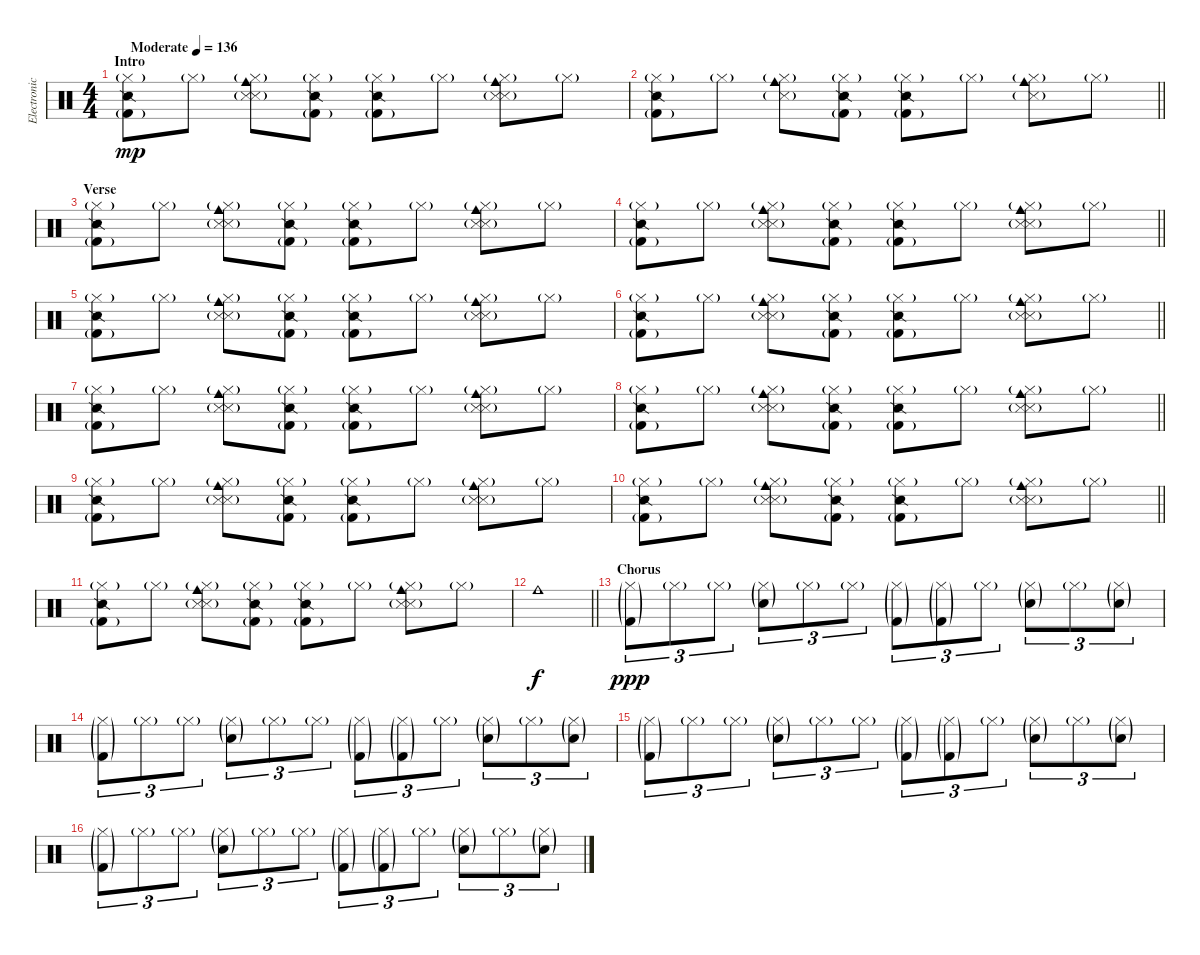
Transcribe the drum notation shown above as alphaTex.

\track ("Electronic Drums" "Electronic") {instrument percussion}
\staff {score}
\articulation defaults
\ts (4 4)
\section ("" "Intro")
\tempo (136 "Moderate")
\clef neutral
\ks c
("Hi-Hat (closed)"{g} "Kick (hit) 2"{g} "Snare (side stick) 2").8{dy mp} "Hi-Hat (closed)"{g}.8 ("Hi-Hat (closed)"{g} "Snare (side stick) 3"{g} "Metronome (hit)" "Cowbell medium (hit)").8 ("Hi-Hat (closed)"{g} "Kick (hit) 2"{g} "Snare (side stick) 2").8 ("Hi-Hat (closed)"{g} "Kick (hit) 2"{g} "Snare (side stick) 2").8 "Hi-Hat (closed)"{g}.8 ("Hi-Hat (closed)"{g} "Snare (side stick) 3"{g} "Metronome (hit)" "Cowbell medium (hit)").8 "Hi-Hat (closed)"{g}.8 |
\barLineRight lightlight
("Hi-Hat (closed)"{g} "Kick (hit) 2"{g} "Snare (side stick) 2").8 "Hi-Hat (closed)"{g}.8 ("Hi-Hat (closed)"{g} "Snare (side stick) 3"{g} "Cowbell medium (hit)").8 ("Hi-Hat (closed)"{g} "Kick (hit) 2"{g} "Snare (side stick) 2").8 ("Hi-Hat (closed)"{g} "Kick (hit) 2"{g} "Snare (side stick) 2").8 "Hi-Hat (closed)"{g}.8 ("Hi-Hat (closed)"{g} "Snare (side stick) 3"{g} "Cowbell medium (hit)").8 "Hi-Hat (closed)"{g}.8 |
\section ("" "Verse")
("Hi-Hat (closed)"{g} "Kick (hit) 2"{g} "Snare (side stick) 2").8 "Hi-Hat (closed)"{g}.8 ("Hi-Hat (closed)"{g} "Snare (side stick) 3"{g} "Metronome (hit)" "Cowbell medium (hit)").8 ("Hi-Hat (closed)"{g} "Kick (hit) 2"{g} "Snare (side stick) 2").8 ("Hi-Hat (closed)"{g} "Kick (hit) 2"{g} "Snare (side stick) 2").8 "Hi-Hat (closed)"{g}.8 ("Hi-Hat (closed)"{g} "Snare (side stick) 3"{g} "Metronome (hit)" "Cowbell medium (hit)").8 "Hi-Hat (closed)"{g}.8 |
\barLineRight lightlight
("Hi-Hat (closed)"{g} "Kick (hit) 2"{g} "Snare (side stick) 2").8 "Hi-Hat (closed)"{g}.8 ("Hi-Hat (closed)"{g} "Snare (side stick) 3"{g} "Metronome (hit)" "Cowbell medium (hit)").8 ("Hi-Hat (closed)"{g} "Kick (hit) 2"{g} "Snare (side stick) 2").8 ("Hi-Hat (closed)"{g} "Kick (hit) 2"{g} "Snare (side stick) 2").8 "Hi-Hat (closed)"{g}.8 ("Hi-Hat (closed)"{g} "Snare (side stick) 3"{g} "Metronome (hit)" "Cowbell medium (hit)").8 "Hi-Hat (closed)"{g}.8 |
("Hi-Hat (closed)"{g} "Kick (hit) 2"{g} "Snare (side stick) 2").8 "Hi-Hat (closed)"{g}.8 ("Hi-Hat (closed)"{g} "Snare (side stick) 3"{g} "Metronome (hit)" "Cowbell medium (hit)").8 ("Hi-Hat (closed)"{g} "Kick (hit) 2"{g} "Snare (side stick) 2").8 ("Hi-Hat (closed)"{g} "Kick (hit) 2"{g} "Snare (side stick) 2").8 "Hi-Hat (closed)"{g}.8 ("Hi-Hat (closed)"{g} "Snare (side stick) 3"{g} "Metronome (hit)" "Cowbell medium (hit)").8 "Hi-Hat (closed)"{g}.8 |
\barLineRight lightlight
("Hi-Hat (closed)"{g} "Kick (hit) 2"{g} "Snare (side stick) 2").8 "Hi-Hat (closed)"{g}.8 ("Hi-Hat (closed)"{g} "Snare (side stick) 3"{g} "Metronome (hit)" "Cowbell medium (hit)").8 ("Hi-Hat (closed)"{g} "Kick (hit) 2"{g} "Snare (side stick) 2").8 ("Hi-Hat (closed)"{g} "Kick (hit) 2"{g} "Snare (side stick) 2").8 "Hi-Hat (closed)"{g}.8 ("Hi-Hat (closed)"{g} "Snare (side stick) 3"{g} "Metronome (hit)" "Cowbell medium (hit)").8 "Hi-Hat (closed)"{g}.8 |
("Hi-Hat (closed)"{g} "Kick (hit) 2"{g} "Snare (side stick) 2").8 "Hi-Hat (closed)"{g}.8 ("Hi-Hat (closed)"{g} "Snare (side stick) 3"{g} "Metronome (hit)" "Cowbell medium (hit)").8 ("Hi-Hat (closed)"{g} "Kick (hit) 2"{g} "Snare (side stick) 2").8 ("Hi-Hat (closed)"{g} "Kick (hit) 2"{g} "Snare (side stick) 2").8 "Hi-Hat (closed)"{g}.8 ("Hi-Hat (closed)"{g} "Snare (side stick) 3"{g} "Metronome (hit)" "Cowbell medium (hit)").8 "Hi-Hat (closed)"{g}.8 |
\barLineRight lightlight
("Hi-Hat (closed)"{g} "Kick (hit) 2"{g} "Snare (side stick) 2").8 "Hi-Hat (closed)"{g}.8 ("Hi-Hat (closed)"{g} "Snare (side stick) 3"{g} "Metronome (hit)" "Cowbell medium (hit)").8 ("Hi-Hat (closed)"{g} "Kick (hit) 2"{g} "Snare (side stick) 2").8 ("Hi-Hat (closed)"{g} "Kick (hit) 2"{g} "Snare (side stick) 2").8 "Hi-Hat (closed)"{g}.8 ("Hi-Hat (closed)"{g} "Snare (side stick) 3"{g} "Metronome (hit)" "Cowbell medium (hit)").8 "Hi-Hat (closed)"{g}.8 |
("Hi-Hat (closed)"{g} "Kick (hit) 2"{g} "Snare (side stick) 2").8 "Hi-Hat (closed)"{g}.8 ("Hi-Hat (closed)"{g} "Snare (side stick) 3"{g} "Metronome (hit)" "Cowbell medium (hit)").8 ("Hi-Hat (closed)"{g} "Kick (hit) 2"{g} "Snare (side stick) 2").8 ("Hi-Hat (closed)"{g} "Kick (hit) 2"{g} "Snare (side stick) 2").8 "Hi-Hat (closed)"{g}.8 ("Hi-Hat (closed)"{g} "Snare (side stick) 3"{g} "Metronome (hit)" "Cowbell medium (hit)").8 "Hi-Hat (closed)"{g}.8 |
\barLineRight lightlight
("Hi-Hat (closed)"{g} "Kick (hit) 2"{g} "Snare (side stick) 2").8 "Hi-Hat (closed)"{g}.8 ("Hi-Hat (closed)"{g} "Snare (side stick) 3"{g} "Metronome (hit)" "Cowbell medium (hit)").8 ("Hi-Hat (closed)"{g} "Kick (hit) 2"{g} "Snare (side stick) 2").8 ("Hi-Hat (closed)"{g} "Kick (hit) 2"{g} "Snare (side stick) 2").8 "Hi-Hat (closed)"{g}.8 ("Hi-Hat (closed)"{g} "Snare (side stick) 3"{g} "Metronome (hit)" "Cowbell medium (hit)").8 "Hi-Hat (closed)"{g}.8 |
("Hi-Hat (closed)"{g} "Kick (hit) 2"{g} "Snare (side stick) 2").8 "Hi-Hat (closed)"{g}.8 ("Hi-Hat (closed)"{g} "Snare (side stick) 3"{g} "Metronome (hit)" "Cowbell medium (hit)").8 ("Hi-Hat (closed)"{g} "Kick (hit) 2"{g} "Snare (side stick) 2").8 ("Hi-Hat (closed)"{g} "Kick (hit) 2"{g} "Snare (side stick) 2").8 "Hi-Hat (closed)"{g}.8 ("Hi-Hat (closed)"{g} "Snare (side stick) 3"{g} "Metronome (hit)" "Cowbell medium (hit)").8 "Hi-Hat (closed)"{g}.8 |
\barLineRight lightlight "Cowbell medium (hit)".1{dy f}
|
\section ("" "Chorus")
("Hi-Hat (closed)"{g} "Kick (hit) 2"{g}).8{tu (3 2) dy ppp} "Hi-Hat (closed)"{g}.8{tu (3 2)} "Hi-Hat (closed)"{g}.8{tu (3 2)} ("Hi-Hat (closed)"{g} "Snare (hit) 2"{g}).8{tu (3 2)} "Hi-Hat (closed)"{g}.8{tu (3 2)} "Hi-Hat (closed)"{g}.8{tu (3 2)} ("Hi-Hat (closed)"{g} "Kick (hit) 2"{g}).8{tu (3 2)} ("Hi-Hat (closed)"{g} "Kick (hit) 2"{g}).8{tu (3 2)} "Hi-Hat (closed)"{g}.8{tu (3 2)} ("Hi-Hat (closed)"{g} "Snare (hit) 2"{g}).8{tu (3 2)} "Hi-Hat (closed)"{g}.8{tu (3 2)} ("Hi-Hat (closed)"{g} "Snare (hit) 2"{g}).8{tu (3 2)} |
("Hi-Hat (closed)"{g} "Kick (hit) 2"{g}).8{tu (3 2)} "Hi-Hat (closed)"{g}.8{tu (3 2)} "Hi-Hat (closed)"{g}.8{tu (3 2)} ("Hi-Hat (closed)"{g} "Snare (hit) 2"{g}).8{tu (3 2)} "Hi-Hat (closed)"{g}.8{tu (3 2)} "Hi-Hat (closed)"{g}.8{tu (3 2)} ("Hi-Hat (closed)"{g} "Kick (hit) 2"{g}).8{tu (3 2)} ("Hi-Hat (closed)"{g} "Kick (hit) 2"{g}).8{tu (3 2)} "Hi-Hat (closed)"{g}.8{tu (3 2)} ("Hi-Hat (closed)"{g} "Snare (hit) 2"{g}).8{tu (3 2)} "Hi-Hat (closed)"{g}.8{tu (3 2)} ("Hi-Hat (closed)"{g} "Snare (hit) 2"{g}).8{tu (3 2)} |
("Hi-Hat (closed)"{g} "Kick (hit) 2"{g}).8{tu (3 2)} "Hi-Hat (closed)"{g}.8{tu (3 2)} "Hi-Hat (closed)"{g}.8{tu (3 2)} ("Hi-Hat (closed)"{g} "Snare (hit) 2"{g}).8{tu (3 2)} "Hi-Hat (closed)"{g}.8{tu (3 2)} "Hi-Hat (closed)"{g}.8{tu (3 2)} ("Hi-Hat (closed)"{g} "Kick (hit) 2"{g}).8{tu (3 2)} ("Hi-Hat (closed)"{g} "Kick (hit) 2"{g}).8{tu (3 2)} "Hi-Hat (closed)"{g}.8{tu (3 2)} ("Hi-Hat (closed)"{g} "Snare (hit) 2"{g}).8{tu (3 2)} "Hi-Hat (closed)"{g}.8{tu (3 2)} ("Hi-Hat (closed)"{g} "Snare (hit) 2"{g}).8{tu (3 2)} |
("Hi-Hat (closed)"{g} "Kick (hit) 2"{g}).8{tu (3 2)} "Hi-Hat (closed)"{g}.8{tu (3 2)} "Hi-Hat (closed)"{g}.8{tu (3 2)} ("Hi-Hat (closed)"{g} "Snare (hit) 2"{g}).8{tu (3 2)} "Hi-Hat (closed)"{g}.8{tu (3 2)} "Hi-Hat (closed)"{g}.8{tu (3 2)} ("Hi-Hat (closed)"{g} "Kick (hit) 2"{g}).8{tu (3 2)} ("Hi-Hat (closed)"{g} "Kick (hit) 2"{g}).8{tu (3 2)} "Hi-Hat (closed)"{g}.8{tu (3 2)} ("Hi-Hat (closed)"{g} "Snare (hit) 2"{g}).8{tu (3 2)} "Hi-Hat (closed)"{g}.8{tu (3 2)} ("Hi-Hat (closed)"{g} "Snare (hit) 2"{g}).8{tu (3 2)}
